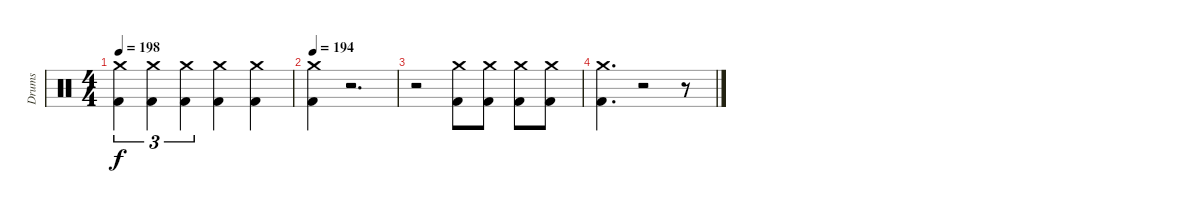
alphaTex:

\track ("Drums" "Drums") {instrument percussion}
\staff {score}
\articulation defaults
\ts (4 4)
\tempo 198
\clef neutral
\ks c
("Crash medium (hit)" "Kick (hit) 2").4{tu (3 2) dy f volume 16} ("Crash medium (hit)" "Kick (hit) 2").4{tu (3 2)} ("Crash medium (hit)" "Kick (hit) 2").4{tu (3 2)} ("Crash medium (hit)" "Kick (hit) 2").4 ("Crash medium (hit)" "Kick (hit) 2").4 |
\tempo 194
("Crash medium (hit)" "Kick (hit) 2").4 r.2{d volume 0} |
r.2 ("Crash medium (hit)" "Kick (hit) 2").8{volume 16} ("Crash medium (hit)" "Kick (hit) 2").8 ("Crash medium (hit)" "Kick (hit) 2").8 ("Crash medium (hit)" "Kick (hit) 2").8 |
("Crash medium (hit)" "Kick (hit) 2").4{d} r.2{volume 0} r.8
